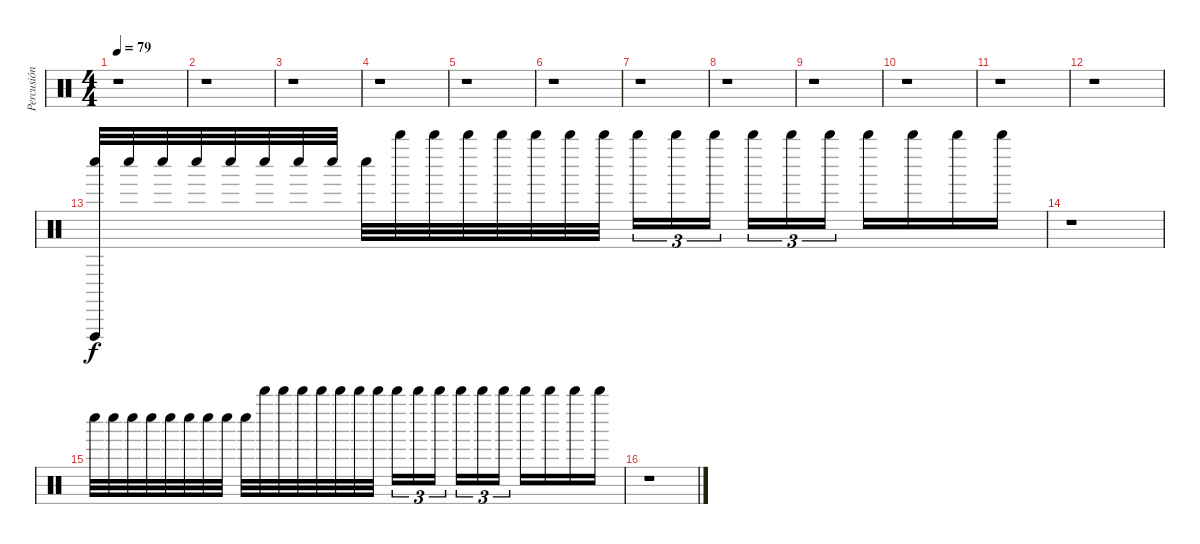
\track ("Percusión" "Percusión") {instrument percussion}
\staff {score}
\articulation defaults
\ts (4 4)
\tempo 79
\clef neutral
\ks c
r.1{dy f} |
r.1 |
r.1 |
r.1 |
r.1 |
r.1 |
r.1 |
r.1 |
r.1 |
r.1 |
r.1 |
r.1 |
("Whistle low (hit)" "Vibraslap (hit)").32 "Whistle low (hit)".32 "Whistle low (hit)".32 "Whistle low (hit)".32 "Whistle low (hit)".32 "Whistle low (hit)".32 "Whistle low (hit)".32 "Whistle low (hit)".32 "Whistle low (hit)".32 "Whistle high (hit)".32 "Whistle high (hit)".32 "Whistle high (hit)".32 "Whistle high (hit)".32 "Whistle high (hit)".32 "Whistle high (hit)".32 "Whistle high (hit)".32 "Whistle high (hit)".16{tu (3 2)} "Whistle high (hit)".16{tu (3 2)} "Whistle high (hit)".16{tu (3 2)} "Whistle high (hit)".16{tu (3 2)} "Whistle high (hit)".16{tu (3 2)} "Whistle high (hit)".16{tu (3 2)} "Whistle high (hit)".16 "Whistle high (hit)".16 "Whistle high (hit)".16 "Whistle high (hit)".16 |
r.1 |
"Whistle low (hit)".32 "Whistle low (hit)".32 "Whistle low (hit)".32 "Whistle low (hit)".32 "Whistle low (hit)".32 "Whistle low (hit)".32 "Whistle low (hit)".32 "Whistle low (hit)".32 "Whistle low (hit)".32 "Whistle high (hit)".32 "Whistle high (hit)".32 "Whistle high (hit)".32 "Whistle high (hit)".32 "Whistle high (hit)".32 "Whistle high (hit)".32 "Whistle high (hit)".32 "Whistle high (hit)".16{tu (3 2)} "Whistle high (hit)".16{tu (3 2)} "Whistle high (hit)".16{tu (3 2)} "Whistle high (hit)".16{tu (3 2)} "Whistle high (hit)".16{tu (3 2)} "Whistle high (hit)".16{tu (3 2)} "Whistle high (hit)".16 "Whistle high (hit)".16 "Whistle high (hit)".16 "Whistle high (hit)".16 |
r.1
